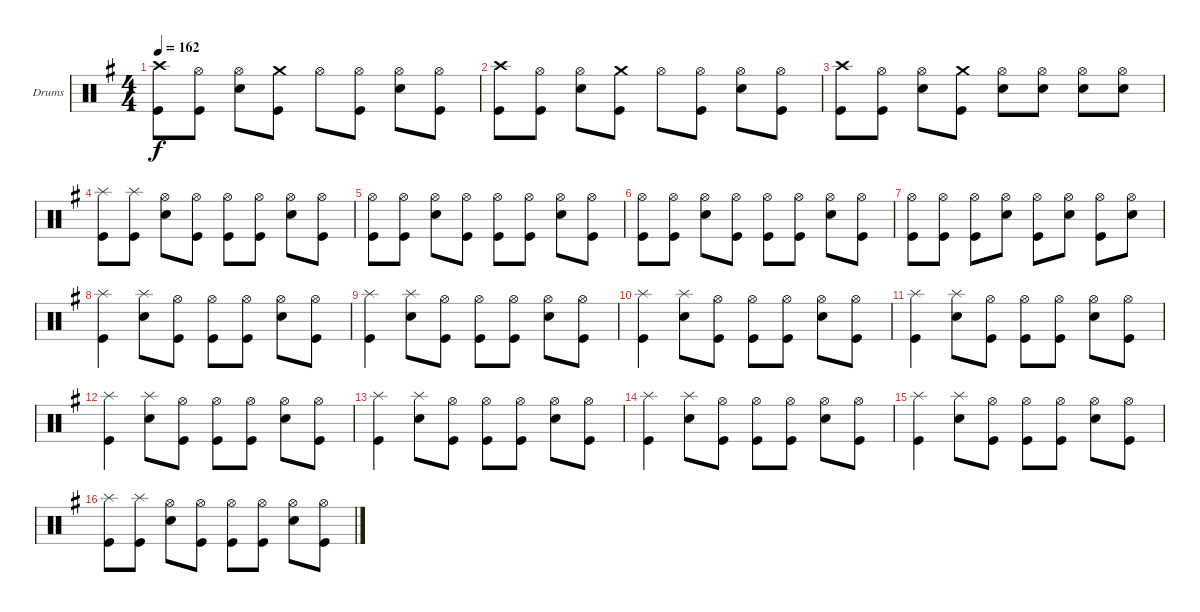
\defaultSystemsLayout 4
\bracketExtendMode groupsimilarinstruments
\firstSystemTrackNameOrientation horizontal
\otherSystemsTrackNameOrientation horizontal
\track ("Drumkit" "Drums") {instrument percussion}
\staff {score}
\articulation defaults
\ts (4 4)
\tempo 162
\clef neutral
\ks g
("Crash high (hit)" "Kick (hit)").8{dy f} ("Hi-Hat (open)" "Kick (hit)").8 ("Hi-Hat (open)" "Snare (hit) 2").8 ("Crash medium (hit)" "Kick (hit)").8 "Hi-Hat (open)".8 ("Hi-Hat (open)" "Kick (hit)").8 ("Hi-Hat (open)" "Snare (hit) 2").8 ("Hi-Hat (open)" "Kick (hit)").8 |
("Crash high (hit)" "Kick (hit)").8 ("Hi-Hat (open)" "Kick (hit)").8 ("Hi-Hat (open)" "Snare (hit) 2").8 ("Crash medium (hit)" "Kick (hit)").8 "Hi-Hat (open)".8 ("Hi-Hat (open)" "Kick (hit)").8 ("Hi-Hat (open)" "Snare (hit) 2").8 ("Hi-Hat (open)" "Kick (hit)").8 |
("Crash high (hit)" "Kick (hit)").8 ("Hi-Hat (open)" "Kick (hit)").8 ("Hi-Hat (open)" "Snare (hit) 2").8 ("Crash medium (hit)" "Kick (hit)").8 ("Hi-Hat (open)" "Snare (hit) 2").8 ("Hi-Hat (open)" "Snare (hit) 2").8 ("Hi-Hat (open)" "Snare (hit) 2").8 ("Hi-Hat (open)" "Snare (hit) 2").8 |
("Splash (hit)" "Kick (hit)").8 ("Splash (hit)" "Kick (hit)").8 ("Hi-Hat (open)" "Snare (hit) 2").8 ("Hi-Hat (open)" "Kick (hit)").8 ("Hi-Hat (open)" "Kick (hit)").8 ("Hi-Hat (open)" "Kick (hit)").8 ("Hi-Hat (open)" "Snare (hit) 2").8 ("Hi-Hat (open)" "Kick (hit)").8 |
("Hi-Hat (open)" "Kick (hit)").8 ("Hi-Hat (open)" "Kick (hit)").8 ("Hi-Hat (open)" "Snare (hit) 2").8 ("Hi-Hat (open)" "Kick (hit)").8 ("Hi-Hat (open)" "Kick (hit)").8 ("Hi-Hat (open)" "Kick (hit)").8 ("Hi-Hat (open)" "Snare (hit) 2").8 ("Hi-Hat (open)" "Kick (hit)").8 |
("Hi-Hat (open)" "Kick (hit)").8 ("Hi-Hat (open)" "Kick (hit)").8 ("Hi-Hat (open)" "Snare (hit) 2").8 ("Hi-Hat (open)" "Kick (hit)").8 ("Hi-Hat (open)" "Kick (hit)").8 ("Hi-Hat (open)" "Kick (hit)").8 ("Hi-Hat (open)" "Snare (hit) 2").8 ("Hi-Hat (open)" "Kick (hit)").8 |
("Hi-Hat (open)" "Kick (hit)").8 ("Hi-Hat (open)" "Kick (hit)").8 ("Hi-Hat (open)" "Kick (hit)").8 ("Hi-Hat (open)" "Snare (hit) 2").8 ("Hi-Hat (open)" "Kick (hit)").8 ("Hi-Hat (open)" "Snare (hit) 2").8 ("Hi-Hat (open)" "Kick (hit)").8 ("Hi-Hat (open)" "Snare (hit) 2").8 |
("Splash (hit)" "Kick (hit)").4 ("Splash (hit)" "Snare (hit) 2").8 ("Hi-Hat (open)" "Kick (hit)").8 ("Hi-Hat (open)" "Kick (hit)").8 ("Hi-Hat (open)" "Kick (hit)").8 ("Hi-Hat (open)" "Snare (hit) 2").8 ("Hi-Hat (open)" "Kick (hit)").8 |
("Splash (hit)" "Kick (hit)").4 ("Splash (hit)" "Snare (hit) 2").8 ("Hi-Hat (open)" "Kick (hit)").8 ("Hi-Hat (open)" "Kick (hit)").8 ("Hi-Hat (open)" "Kick (hit)").8 ("Hi-Hat (open)" "Snare (hit) 2").8 ("Hi-Hat (open)" "Kick (hit)").8 |
("Splash (hit)" "Kick (hit)").4 ("Splash (hit)" "Snare (hit) 2").8 ("Hi-Hat (open)" "Kick (hit)").8 ("Hi-Hat (open)" "Kick (hit)").8 ("Hi-Hat (open)" "Kick (hit)").8 ("Hi-Hat (open)" "Snare (hit) 2").8 ("Hi-Hat (open)" "Kick (hit)").8 |
("Splash (hit)" "Kick (hit)").4 ("Splash (hit)" "Snare (hit) 2").8 ("Hi-Hat (open)" "Kick (hit)").8 ("Hi-Hat (open)" "Kick (hit)").8 ("Hi-Hat (open)" "Kick (hit)").8 ("Hi-Hat (open)" "Snare (hit) 2").8 ("Hi-Hat (open)" "Kick (hit)").8 |
("Splash (hit)" "Kick (hit)").4 ("Splash (hit)" "Snare (hit) 2").8 ("Hi-Hat (open)" "Kick (hit)").8 ("Hi-Hat (open)" "Kick (hit)").8 ("Hi-Hat (open)" "Kick (hit)").8 ("Hi-Hat (open)" "Snare (hit) 2").8 ("Hi-Hat (open)" "Kick (hit)").8 |
("Splash (hit)" "Kick (hit)").4 ("Splash (hit)" "Snare (hit) 2").8 ("Hi-Hat (open)" "Kick (hit)").8 ("Hi-Hat (open)" "Kick (hit)").8 ("Hi-Hat (open)" "Kick (hit)").8 ("Hi-Hat (open)" "Snare (hit) 2").8 ("Hi-Hat (open)" "Kick (hit)").8 |
("Splash (hit)" "Kick (hit)").4 ("Splash (hit)" "Snare (hit) 2").8 ("Hi-Hat (open)" "Kick (hit)").8 ("Hi-Hat (open)" "Kick (hit)").8 ("Hi-Hat (open)" "Kick (hit)").8 ("Hi-Hat (open)" "Snare (hit) 2").8 ("Hi-Hat (open)" "Kick (hit)").8 |
("Splash (hit)" "Kick (hit)").4 ("Splash (hit)" "Snare (hit) 2").8 ("Hi-Hat (open)" "Kick (hit)").8 ("Hi-Hat (open)" "Kick (hit)").8 ("Hi-Hat (open)" "Kick (hit)").8 ("Hi-Hat (open)" "Snare (hit) 2").8 ("Hi-Hat (open)" "Kick (hit)").8 |
("Splash (hit)" "Kick (hit)").8 ("Splash (hit)" "Kick (hit)").8 ("Hi-Hat (open)" "Snare (hit) 2").8 ("Hi-Hat (open)" "Kick (hit)").8 ("Hi-Hat (open)" "Kick (hit)").8 ("Hi-Hat (open)" "Kick (hit)").8 ("Hi-Hat (open)" "Snare (hit) 2").8 ("Hi-Hat (open)" "Kick (hit)").8
